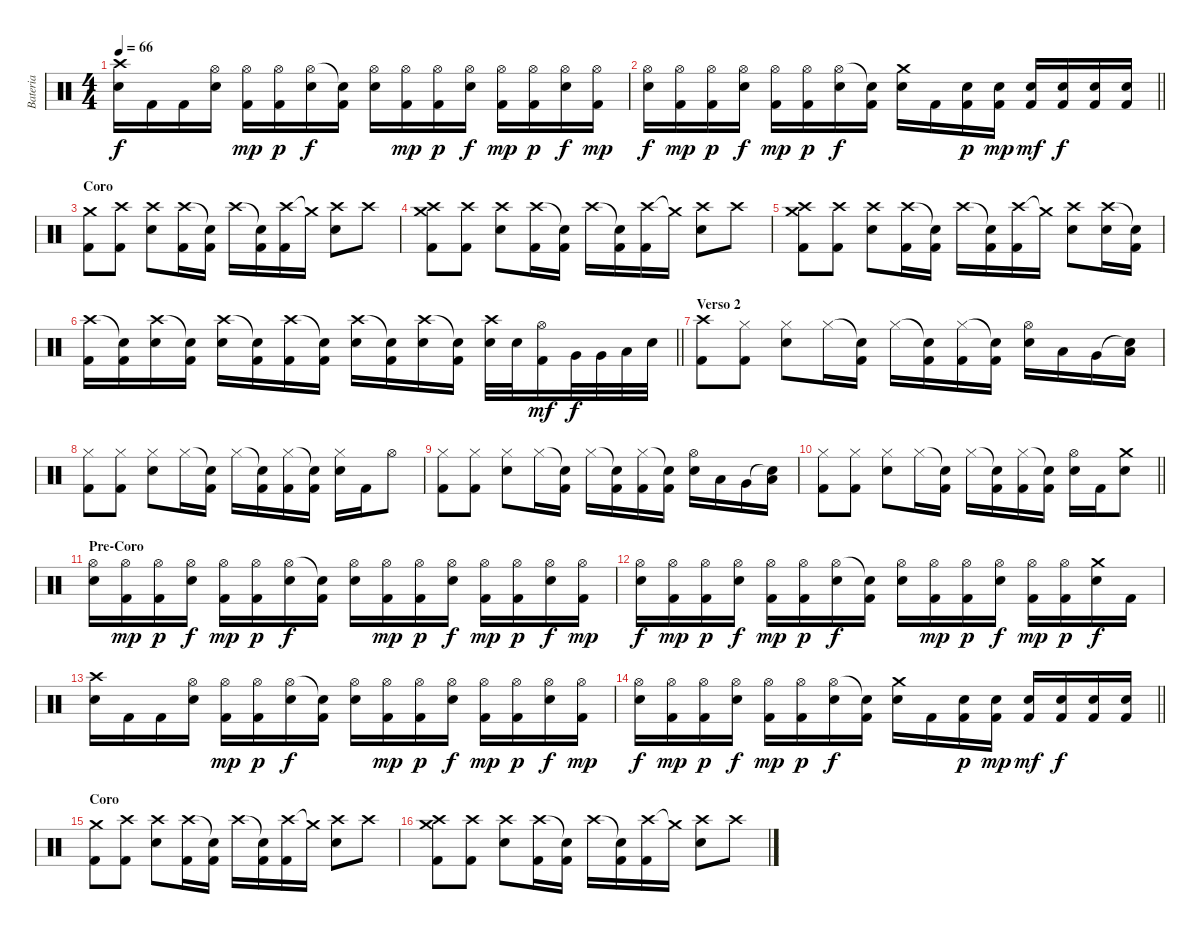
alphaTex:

\track ("Bateria" "Bateria") {instrument percussion}
\staff {score}
\articulation defaults
\ts (4 4)
\tempo 66
\clef neutral
\ks c
("Crash high (hit)" "Electric Snare (hit)").16{dy f} "Kick (hit) 2".16 "Kick (hit) 2".16 ("Hi-Hat (open)" "Electric Snare (hit)").16 ("Hi-Hat (open)" "Kick (hit) 2").16{dy mp} ("Hi-Hat (open)" "Kick (hit) 2").16{dy p} ("Hi-Hat (open)" "Electric Snare (hit)").16{dy f} ("Snare (hit)"{t} "Kick (hit) 2").16 ("Hi-Hat (open)" "Electric Snare (hit)").16 ("Hi-Hat (open)" "Kick (hit) 2").16{dy mp} ("Hi-Hat (open)" "Kick (hit) 2").16{dy p} ("Hi-Hat (open)" "Electric Snare (hit)").16{dy f} ("Hi-Hat (open)" "Kick (hit) 2").16{dy mp} ("Hi-Hat (open)" "Kick (hit) 2").16{dy p} ("Hi-Hat (open)" "Electric Snare (hit)").16{dy f} ("Hi-Hat (open)" "Kick (hit) 2").16{dy mp} |
\barLineRight lightlight
("Hi-Hat (open)" "Electric Snare (hit)").16{dy f} ("Hi-Hat (open)" "Kick (hit) 2").16{dy mp} ("Hi-Hat (open)" "Kick (hit) 2").16{dy p} ("Hi-Hat (open)" "Electric Snare (hit)").16{dy f} ("Hi-Hat (open)" "Kick (hit) 2").16{dy mp} ("Hi-Hat (open)" "Kick (hit) 2").16{dy p} ("Hi-Hat (open)" "Electric Snare (hit)").16{dy f} ("Snare (hit)"{t} "Kick (hit) 2").16 ("Crash medium (hit)" "Electric Snare (hit)").16 "Kick (hit) 2".16 ("Electric Snare (hit)" "Kick (hit) 2").16{dy p} ("Electric Snare (hit)" "Kick (hit) 2").16{dy mp} ("Electric Snare (hit)" "Kick (hit) 2").16{dy mf} ("Electric Snare (hit)" "Kick (hit) 2").16{dy f} ("Electric Snare (hit)" "Kick (hit) 2").16 ("Electric Snare (hit)" "Kick (hit) 2").16 |
\section ("" "Coro")
("Crash medium (hit)" "Kick (hit) 2").8 ("Crash high (hit)" "Kick (hit) 2").8 ("Crash high (hit)" "Electric Snare (hit)").8 ("Crash high (hit)" "Kick (hit) 2").16 ("Snare (hit)"{t} "Kick (hit) 2").16 "Crash high (hit)".16 ("Snare (hit)"{t} "Kick (hit) 2").16 ("Crash high (hit)" "Kick (hit) 2").16 "Crash medium (hit)"{t}.16 ("Crash high (hit)" "Electric Snare (hit)").8 "Crash high (hit)".8 |
("Crash high (hit)" "Crash medium (hit)" "Kick (hit) 2").8 ("Crash high (hit)" "Kick (hit) 2").8 ("Crash high (hit)" "Electric Snare (hit)").8 ("Crash high (hit)" "Kick (hit) 2").16 ("Snare (hit)"{t} "Kick (hit) 2").16 "Crash high (hit)".16 ("Snare (hit)"{t} "Kick (hit) 2").16 ("Crash high (hit)" "Kick (hit) 2").16 "Crash medium (hit)"{t}.16 ("Crash high (hit)" "Electric Snare (hit)").8 "Crash high (hit)".8 |
("Crash high (hit)" "Crash medium (hit)" "Kick (hit) 2").8 ("Crash high (hit)" "Kick (hit) 2").8 ("Crash high (hit)" "Electric Snare (hit)").8 ("Crash high (hit)" "Kick (hit) 2").16 ("Snare (hit)"{t} "Kick (hit) 2").16 "Crash high (hit)".16 ("Snare (hit)"{t} "Kick (hit) 2").16 ("Crash high (hit)" "Kick (hit) 2").16 "Crash medium (hit)"{t}.16 ("Crash high (hit)" "Electric Snare (hit)").8 ("Crash high (hit)" "Electric Snare (hit)").16 ("Snare (hit)"{t} "Kick (hit) 2").16 |
\barLineRight lightlight
("Crash high (hit)" "Kick (hit) 2").16 ("Snare (hit)"{t} "Kick (hit) 2").16 ("Crash high (hit)" "Electric Snare (hit)").16 ("Snare (hit)"{t} "Kick (hit) 2").16 ("Crash high (hit)" "Electric Snare (hit)").16 ("Snare (hit)"{t} "Kick (hit) 2").16 ("Crash high (hit)" "Kick (hit) 2").16 ("Snare (hit)"{t} "Kick (hit) 2").16 ("Crash high (hit)" "Electric Snare (hit)").16 ("Snare (hit)"{t} "Kick (hit) 2").16 ("Crash high (hit)" "Electric Snare (hit)").16 ("Snare (hit)"{t} "Kick (hit) 2").16 ("Crash high (hit)" "Electric Snare (hit)").32 "Electric Snare (hit)".32 ("Hi-Hat (open)" "Kick (hit) 2").16{dy mf} "Very Low Tom (hit)".32{dy f} "Very Low Tom (hit)".32 "Low Floor Tom (hit)".32 "Electric Snare (hit)".32 |
\section ("" "Verso 2")
("Crash high (hit)" "Kick (hit) 2").8 ("Hi-Hat (closed)" "Kick (hit) 2").8 ("Hi-Hat (closed)" "Electric Snare (hit)").8 "Hi-Hat (closed)".16 ("Snare (hit)"{t} "Kick (hit) 2").16 "Hi-Hat (closed)".16 ("Snare (hit)"{t} "Kick (hit) 2").16 ("Hi-Hat (closed)" "Kick (hit) 2").16 ("Snare (hit)"{t} "Kick (hit) 2").16 ("Hi-Hat (open)" "Electric Snare (hit)").16 "Low Tom (hit)".16 "Very Low Tom (hit)".16 ("Snare (hit)"{t} "Low Floor Tom (hit)").16 |
("Hi-Hat (closed)" "Kick (hit) 2").8 ("Hi-Hat (closed)" "Kick (hit) 2").8 ("Hi-Hat (closed)" "Electric Snare (hit)").8 "Hi-Hat (closed)".16 ("Snare (hit)"{t} "Kick (hit) 2").16 "Hi-Hat (closed)".16 ("Snare (hit)"{t} "Kick (hit) 2").16 ("Hi-Hat (closed)" "Kick (hit) 2").16 ("Snare (hit)"{t} "Kick (hit) 2").16 ("Hi-Hat (closed)" "Electric Snare (hit)").16 "Kick (hit) 2".16 "Hi-Hat (open)".8 |
("Hi-Hat (closed)" "Kick (hit) 2").8 ("Hi-Hat (closed)" "Kick (hit) 2").8 ("Hi-Hat (closed)" "Electric Snare (hit)").8 "Hi-Hat (closed)".16 ("Snare (hit)"{t} "Kick (hit) 2").16 "Hi-Hat (closed)".16 ("Snare (hit)"{t} "Kick (hit) 2").16 ("Hi-Hat (closed)" "Kick (hit) 2").16 ("Snare (hit)"{t} "Kick (hit) 2").16 ("Hi-Hat (open)" "Electric Snare (hit)").16 "Low Tom (hit)".16 "Very Low Tom (hit)".16 ("Snare (hit)"{t} "Low Floor Tom (hit)").16 |
\barLineRight lightlight
("Hi-Hat (closed)" "Kick (hit) 2").8 ("Hi-Hat (closed)" "Kick (hit) 2").8 ("Hi-Hat (closed)" "Electric Snare (hit)").8 "Hi-Hat (closed)".16 ("Snare (hit)"{t} "Kick (hit) 2").16 "Hi-Hat (closed)".16 ("Snare (hit)"{t} "Kick (hit) 2").16 ("Hi-Hat (closed)" "Kick (hit) 2").16 ("Snare (hit)"{t} "Kick (hit) 2").16 ("Hi-Hat (open)" "Electric Snare (hit)").16 "Kick (hit) 2".16 ("Crash medium (hit)" "Electric Snare (hit)").8 |
\section ("" "Pre-Coro")
("Hi-Hat (open)" "Electric Snare (hit)").16 ("Hi-Hat (open)" "Kick (hit) 2").16{dy mp} ("Hi-Hat (open)" "Kick (hit) 2").16{dy p} ("Hi-Hat (open)" "Electric Snare (hit)").16{dy f} ("Hi-Hat (open)" "Kick (hit) 2").16{dy mp} ("Hi-Hat (open)" "Kick (hit) 2").16{dy p} ("Hi-Hat (open)" "Electric Snare (hit)").16{dy f} ("Snare (hit)"{t} "Kick (hit) 2").16 ("Hi-Hat (open)" "Electric Snare (hit)").16 ("Hi-Hat (open)" "Kick (hit) 2").16{dy mp} ("Hi-Hat (open)" "Kick (hit) 2").16{dy p} ("Hi-Hat (open)" "Electric Snare (hit)").16{dy f} ("Hi-Hat (open)" "Kick (hit) 2").16{dy mp} ("Hi-Hat (open)" "Kick (hit) 2").16{dy p} ("Hi-Hat (open)" "Electric Snare (hit)").16{dy f} ("Hi-Hat (open)" "Kick (hit) 2").16{dy mp} |
("Hi-Hat (open)" "Electric Snare (hit)").16{dy f} ("Hi-Hat (open)" "Kick (hit) 2").16{dy mp} ("Hi-Hat (open)" "Kick (hit) 2").16{dy p} ("Hi-Hat (open)" "Electric Snare (hit)").16{dy f} ("Hi-Hat (open)" "Kick (hit) 2").16{dy mp} ("Hi-Hat (open)" "Kick (hit) 2").16{dy p} ("Hi-Hat (open)" "Electric Snare (hit)").16{dy f} ("Snare (hit)"{t} "Kick (hit) 2").16 ("Hi-Hat (open)" "Electric Snare (hit)").16 ("Hi-Hat (open)" "Kick (hit) 2").16{dy mp} ("Hi-Hat (open)" "Kick (hit) 2").16{dy p} ("Hi-Hat (open)" "Electric Snare (hit)").16{dy f} ("Hi-Hat (open)" "Kick (hit) 2").16{dy mp} ("Hi-Hat (open)" "Kick (hit) 2").16{dy p} ("Crash medium (hit)" "Electric Snare (hit)").16{dy f} "Kick (hit) 2".16 |
("Crash high (hit)" "Electric Snare (hit)").16 "Kick (hit) 2".16 "Kick (hit) 2".16 ("Hi-Hat (open)" "Electric Snare (hit)").16 ("Hi-Hat (open)" "Kick (hit) 2").16{dy mp} ("Hi-Hat (open)" "Kick (hit) 2").16{dy p} ("Hi-Hat (open)" "Electric Snare (hit)").16{dy f} ("Snare (hit)"{t} "Kick (hit) 2").16 ("Hi-Hat (open)" "Electric Snare (hit)").16 ("Hi-Hat (open)" "Kick (hit) 2").16{dy mp} ("Hi-Hat (open)" "Kick (hit) 2").16{dy p} ("Hi-Hat (open)" "Electric Snare (hit)").16{dy f} ("Hi-Hat (open)" "Kick (hit) 2").16{dy mp} ("Hi-Hat (open)" "Kick (hit) 2").16{dy p} ("Hi-Hat (open)" "Electric Snare (hit)").16{dy f} ("Hi-Hat (open)" "Kick (hit) 2").16{dy mp} |
\barLineRight lightlight
("Hi-Hat (open)" "Electric Snare (hit)").16{dy f} ("Hi-Hat (open)" "Kick (hit) 2").16{dy mp} ("Hi-Hat (open)" "Kick (hit) 2").16{dy p} ("Hi-Hat (open)" "Electric Snare (hit)").16{dy f} ("Hi-Hat (open)" "Kick (hit) 2").16{dy mp} ("Hi-Hat (open)" "Kick (hit) 2").16{dy p} ("Hi-Hat (open)" "Electric Snare (hit)").16{dy f} ("Snare (hit)"{t} "Kick (hit) 2").16 ("Crash medium (hit)" "Electric Snare (hit)").16 "Kick (hit) 2".16 ("Electric Snare (hit)" "Kick (hit) 2").16{dy p} ("Electric Snare (hit)" "Kick (hit) 2").16{dy mp} ("Electric Snare (hit)" "Kick (hit) 2").16{dy mf} ("Electric Snare (hit)" "Kick (hit) 2").16{dy f} ("Electric Snare (hit)" "Kick (hit) 2").16 ("Electric Snare (hit)" "Kick (hit) 2").16 |
\section ("" "Coro")
("Crash medium (hit)" "Kick (hit) 2").8 ("Crash high (hit)" "Kick (hit) 2").8 ("Crash high (hit)" "Electric Snare (hit)").8 ("Crash high (hit)" "Kick (hit) 2").16 ("Snare (hit)"{t} "Kick (hit) 2").16 "Crash high (hit)".16 ("Snare (hit)"{t} "Kick (hit) 2").16 ("Crash high (hit)" "Kick (hit) 2").16 "Crash medium (hit)"{t}.16 ("Crash high (hit)" "Electric Snare (hit)").8 "Crash high (hit)".8 |
("Crash high (hit)" "Crash medium (hit)" "Kick (hit) 2").8 ("Crash high (hit)" "Kick (hit) 2").8 ("Crash high (hit)" "Electric Snare (hit)").8 ("Crash high (hit)" "Kick (hit) 2").16 ("Snare (hit)"{t} "Kick (hit) 2").16 "Crash high (hit)".16 ("Snare (hit)"{t} "Kick (hit) 2").16 ("Crash high (hit)" "Kick (hit) 2").16 "Crash medium (hit)"{t}.16 ("Crash high (hit)" "Electric Snare (hit)").8 "Crash high (hit)".8
